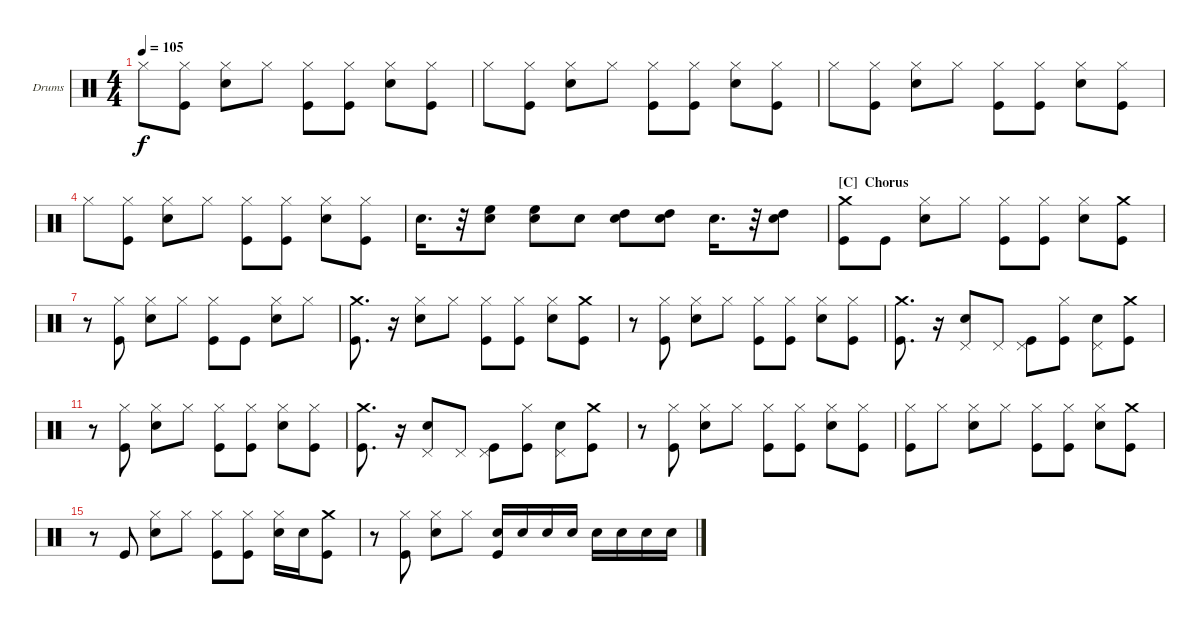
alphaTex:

\bracketExtendMode nobrackets
\firstSystemTrackNameOrientation horizontal
\otherSystemsTrackNameOrientation horizontal
\defaultBarNumberDisplay FirstOfSystem
\track ("Drumkit" "Drums") {instrument percussion}
\staff {score}
\articulation defaults
\ts (4 4)
\tempo 105
\clef neutral
\ks c "Hi-Hat (closed)".8{dy f}
("Kick (hit)" "Hi-Hat (closed)").8 ("Snare (hit) 2" "Hi-Hat (closed)").8 "Hi-Hat (closed)".8 ("Kick (hit)" "Hi-Hat (closed)").8 ("Kick (hit)" "Hi-Hat (closed)").8 ("Snare (hit) 2" "Hi-Hat (closed)").8 ("Kick (hit)" "Hi-Hat (closed)").8 |
"Hi-Hat (closed)".8 ("Kick (hit)" "Hi-Hat (closed)").8 ("Snare (hit) 2" "Hi-Hat (closed)").8 "Hi-Hat (closed)".8 ("Kick (hit)" "Hi-Hat (closed)").8 ("Kick (hit)" "Hi-Hat (closed)").8 ("Snare (hit) 2" "Hi-Hat (closed)").8 ("Kick (hit)" "Hi-Hat (closed)").8 |
"Hi-Hat (closed)".8 ("Kick (hit)" "Hi-Hat (closed)").8 ("Snare (hit) 2" "Hi-Hat (closed)").8 "Hi-Hat (closed)".8 ("Kick (hit)" "Hi-Hat (closed)").8 ("Kick (hit)" "Hi-Hat (closed)").8 ("Snare (hit) 2" "Hi-Hat (closed)").8 ("Kick (hit)" "Hi-Hat (closed)").8 |
"Hi-Hat (closed)".8 ("Kick (hit)" "Hi-Hat (closed)").8 ("Snare (hit) 2" "Hi-Hat (closed)").8 "Hi-Hat (closed)".8 ("Kick (hit)" "Hi-Hat (closed)").8 ("Kick (hit)" "Hi-Hat (closed)").8 ("Snare (hit) 2" "Hi-Hat (closed)").8 ("Kick (hit)" "Hi-Hat (closed)").8 |
"Snare (hit) 2".16{d} r.32 ("Snare (hit) 2" "High Floor Tom (hit)").8 ("Snare (hit) 2" "High Floor Tom (hit)").8 "Snare (hit) 2".8 ("Snare (hit) 2" "High Tom (hit)").8 ("Snare (hit) 2" "High Tom (hit)").8 "Snare (hit) 2".16{d} r.32 ("Snare (hit) 2" "High Tom (hit)").8 |
\section ("C" " Chorus")
("Kick (hit)" "Crash medium (hit)").8 "Kick (hit)".8 ("Snare (hit) 2" "Hi-Hat (closed)").8 "Hi-Hat (closed)".8 ("Kick (hit)" "Hi-Hat (closed)").8 ("Kick (hit)" "Hi-Hat (closed)").8 ("Snare (hit) 2" "Hi-Hat (closed)").8 ("Kick (hit)" "Crash medium (hit)").8 |
r.8 ("Kick (hit)" "Hi-Hat (closed)").8 ("Snare (hit) 2" "Hi-Hat (closed)").8 "Hi-Hat (closed)".8 ("Kick (hit)" "Hi-Hat (closed)").8 "Kick (hit)".8 ("Snare (hit) 2" "Hi-Hat (closed)").8 "Hi-Hat (closed)".8 |
("Kick (hit)" "Crash medium (hit)").8{d} r.16 ("Snare (hit) 2" "Hi-Hat (closed)").8 "Hi-Hat (closed)".8 ("Kick (hit)" "Hi-Hat (closed)").8 ("Kick (hit)" "Hi-Hat (closed)").8 ("Snare (hit) 2" "Hi-Hat (closed)").8 ("Kick (hit)" "Crash medium (hit)").8 |
r.8 ("Kick (hit)" "Hi-Hat (closed)").8 ("Snare (hit) 2" "Hi-Hat (closed)").8 "Hi-Hat (closed)".8 ("Kick (hit)" "Hi-Hat (closed)").8 ("Kick (hit)" "Hi-Hat (closed)").8 ("Snare (hit) 2" "Hi-Hat (closed)").8 ("Kick (hit)" "Hi-Hat (closed)").8 |
("Kick (hit)" "Crash medium (hit)").8{d} r.16 ("Snare (hit) 2" "Pedal Hi-Hat (hit)").8 "Pedal Hi-Hat (hit)".8 ("Kick (hit)" "Pedal Hi-Hat (hit)").8 ("Kick (hit)" "Hi-Hat (closed)").8 ("Snare (hit) 2" "Pedal Hi-Hat (hit)").8 ("Kick (hit)" "Crash medium (hit)").8 |
r.8 ("Kick (hit)" "Hi-Hat (closed)").8 ("Snare (hit) 2" "Hi-Hat (closed)").8 "Hi-Hat (closed)".8 ("Kick (hit)" "Hi-Hat (closed)").8 ("Kick (hit)" "Hi-Hat (closed)").8 ("Snare (hit) 2" "Hi-Hat (closed)").8 ("Kick (hit)" "Hi-Hat (closed)").8 |
("Kick (hit)" "Crash medium (hit)").8{d} r.16 ("Snare (hit) 2" "Pedal Hi-Hat (hit)").8 "Pedal Hi-Hat (hit)".8 ("Kick (hit)" "Pedal Hi-Hat (hit)").8 ("Kick (hit)" "Hi-Hat (closed)").8 ("Snare (hit) 2" "Pedal Hi-Hat (hit)").8 ("Kick (hit)" "Crash medium (hit)").8 |
r.8 ("Kick (hit)" "Hi-Hat (closed)").8 ("Snare (hit) 2" "Hi-Hat (closed)").8 "Hi-Hat (closed)".8 ("Kick (hit)" "Hi-Hat (closed)").8 ("Kick (hit)" "Hi-Hat (closed)").8 ("Snare (hit) 2" "Hi-Hat (closed)").8 ("Kick (hit)" "Hi-Hat (closed)").8 |
("Kick (hit)" "Hi-Hat (closed)").8 "Hi-Hat (closed)".8 ("Snare (hit) 2" "Hi-Hat (closed)").8 "Hi-Hat (closed)".8 ("Kick (hit)" "Hi-Hat (closed)").8 ("Kick (hit)" "Hi-Hat (closed)").8 ("Snare (hit) 2" "Hi-Hat (closed)").8 ("Kick (hit)" "Crash medium (hit)").8 |
r.8 "Kick (hit)".8 ("Snare (hit) 2" "Hi-Hat (closed)").8 "Hi-Hat (closed)".8 ("Kick (hit)" "Hi-Hat (closed)").8 ("Kick (hit)" "Hi-Hat (closed)").8 ("Snare (hit) 2" "Hi-Hat (closed)").16 "Snare (hit) 2".16 ("Kick (hit)" "Crash medium (hit)").8 |
r.8 ("Kick (hit)" "Hi-Hat (closed)").8 ("Snare (hit) 2" "Hi-Hat (closed)").8 "Hi-Hat (closed)".8 ("Kick (hit)" "Snare (hit) 2").16 "Snare (hit) 2".16 "Snare (hit) 2".16 "Snare (hit) 2".16 "Snare (hit) 2".16 "Snare (hit) 2".16 "Snare (hit) 2".16 "Snare (hit) 2".16
